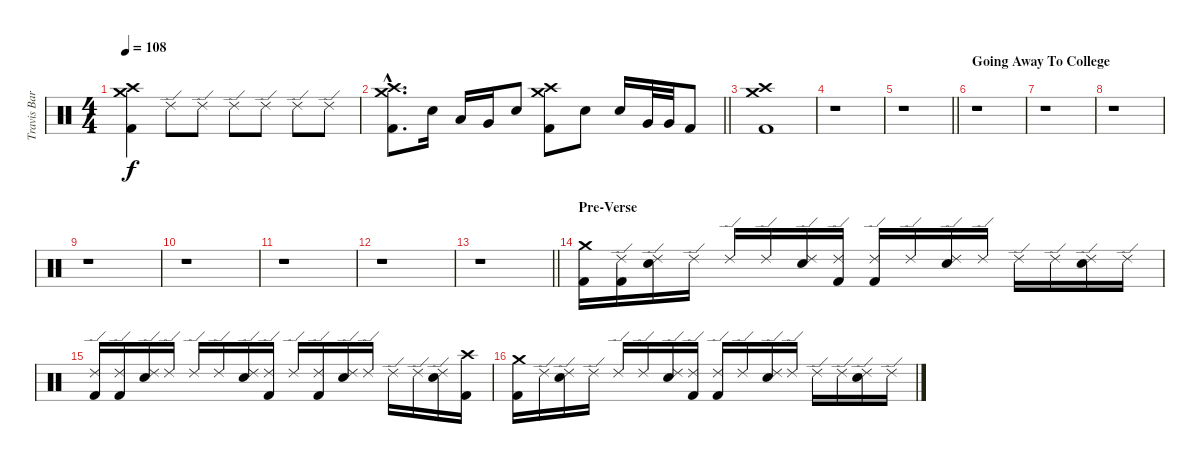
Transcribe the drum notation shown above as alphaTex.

\track ("Travis Barker" "Travis Bar") {instrument percussion}
\staff {score}
\articulation defaults
\ts (4 4)
\tempo 108
\clef neutral
\ks c
("Crash medium (hit)" "Crash high (hit)" "Kick (hit) 2").4{dy f} "Ride (edge) 2".8 "Ride (edge) 2".8 "Ride (edge) 2".8 "Ride (edge) 2".8 "Ride (edge) 2".8 "Ride (edge) 2".8 |
\barLineRight lightlight
("Crash medium (hit)"{hac} "Crash high (hit)"{hac} "Kick (hit) 2"{hac}).8{d} "Electric Snare (hit)".16 "Low Tom (hit)".16 "Very Low Tom (hit)".16 "Electric Snare (hit)".8 ("Crash medium (hit)" "Crash high (hit)" "Kick (hit) 2").8 "Electric Snare (hit)".8 "Electric Snare (hit)".16 "Very Low Tom (hit)".32 "Very Low Tom (hit)".32 "Kick (hit) 2".8 |
("Crash medium (hit)" "Crash high (hit)" "Kick (hit) 2").1 |
r.1 |
\barLineRight lightlight
r.1 |
\section ("" "Going Away To College")
r.1 |
r.1 |
r.1 |
r.1 |
r.1 |
r.1 |
r.1 |
\barLineRight lightlight
r.1 |
\section ("" "Pre-Verse")
("Crash medium (hit)" "Kick (hit) 2").16 ("Ride (edge) 2" "Kick (hit) 2").16 ("Ride (edge) 2" "Electric Snare (hit)").16 "Ride (edge) 2".16 "Ride (edge) 2".16 "Ride (edge) 2".16 ("Ride (edge) 2" "Electric Snare (hit)").16 ("Ride (edge) 2" "Kick (hit) 2").16 ("Ride (edge) 2" "Kick (hit) 2").16 "Ride (edge) 2".16 ("Ride (edge) 2" "Electric Snare (hit)").16 "Ride (edge) 2".16 "Ride (edge) 2".16 "Ride (edge) 2".16 ("Ride (edge) 2" "Electric Snare (hit)").16 "Ride (edge) 2".16 |
("Ride (edge) 2" "Kick (hit) 2").16 ("Ride (edge) 2" "Kick (hit) 2").16 ("Ride (edge) 2" "Electric Snare (hit)").16 "Ride (edge) 2".16 "Ride (edge) 2".16 "Ride (edge) 2".16 ("Ride (edge) 2" "Electric Snare (hit)").16 ("Ride (edge) 2" "Kick (hit) 2").16 "Ride (edge) 2".16 ("Ride (edge) 2" "Kick (hit) 2").16 ("Ride (edge) 2" "Electric Snare (hit)").16 "Ride (edge) 2".16 "Ride (edge) 2".16 "Ride (edge) 2".16 ("Ride (edge) 2" "Electric Snare (hit)").16 ("Crash high (hit)" "Kick (hit) 2").16 |
("Crash medium (hit)" "Kick (hit) 2").16 "Ride (edge) 2".16 ("Ride (edge) 2" "Electric Snare (hit)").16 "Ride (edge) 2".16 "Ride (edge) 2".16 "Ride (edge) 2".16 ("Ride (edge) 2" "Electric Snare (hit)").16 ("Ride (edge) 2" "Kick (hit) 2").16 ("Ride (edge) 2" "Kick (hit) 2").16 "Ride (edge) 2".16 ("Ride (edge) 2" "Electric Snare (hit)").16 "Ride (edge) 2".16 "Ride (edge) 2".16 "Ride (edge) 2".16 ("Ride (edge) 2" "Electric Snare (hit)").16 "Ride (edge) 2".16
